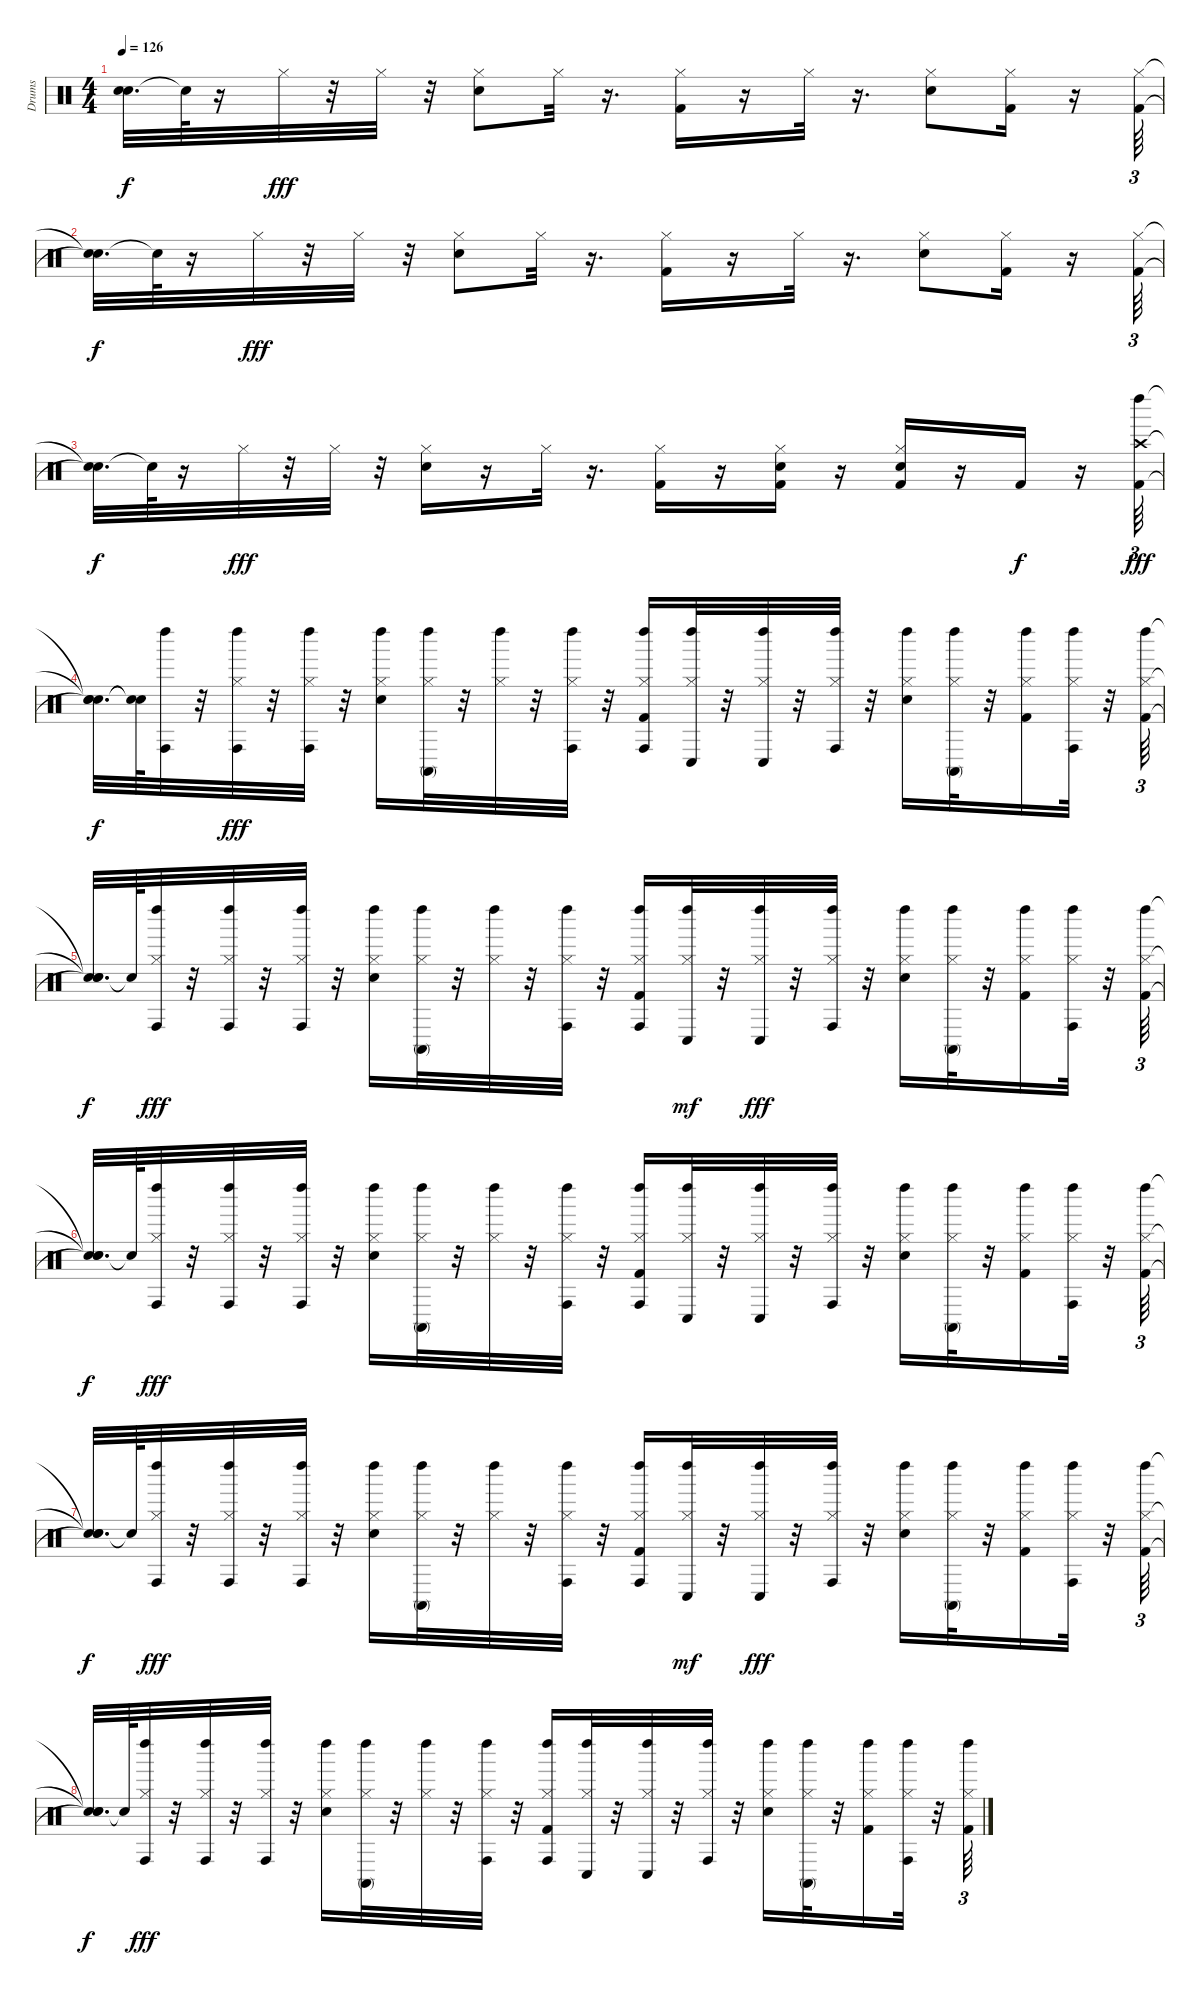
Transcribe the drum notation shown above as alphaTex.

\track ("Drums" "Drums") {instrument percussion}
\staff {score}
\articulation defaults
\ts (4 4)
\tempo 126
\clef neutral
\ks c
("Snare (hit)"{t} "Snare (hit)"{t}).32{d dy f} "Snare (hit)"{t}.64 r.16 "Hi-Hat (closed)".32{dy fff} r.32 "Hi-Hat (closed)".32 r.32 ("Snare (hit) 2" "Hi-Hat (closed)").8 "Hi-Hat (closed)".32 r.16{d} ("Hi-Hat (closed)" "Kick (hit) 2").16 r.16 "Hi-Hat (closed)".32 r.16{d} ("Snare (hit) 2" "Hi-Hat (closed)").8 ("Hi-Hat (closed)" "Kick (hit) 2").16 r.16 ("Hi-Hat (closed)" "Kick (hit) 2").64{tu (3 2)} |
("Snare (hit)"{t} "Snare (hit)"{t}).32{d dy f} "Snare (hit)"{t}.64 r.16 "Hi-Hat (closed)".32{dy fff} r.32 "Hi-Hat (closed)".32 r.32 ("Snare (hit) 2" "Hi-Hat (closed)").8 "Hi-Hat (closed)".32 r.16{d} ("Hi-Hat (closed)" "Kick (hit) 2").16 r.16 "Hi-Hat (closed)".32 r.16{d} ("Hi-Hat (closed)" "Snare (hit) 2").8 ("Kick (hit) 2" "Hi-Hat (closed)").16 r.16 ("Hi-Hat (closed)" "Kick (hit) 2").64{tu (3 2)} |
("Snare (hit)"{t} "Snare (hit)"{t}).32{d dy f} "Snare (hit)"{t}.64 r.16 "Hi-Hat (closed)".32{dy fff} r.32 "Hi-Hat (closed)".32 r.32 ("Hi-Hat (closed)" "Snare (hit) 2").16 r.16 "Hi-Hat (closed)".32 r.16{d} ("Kick (hit) 2" "Hi-Hat (closed)").16 r.16 ("Kick (hit) 2" "Hi-Hat (closed)" "Snare (hit) 2").16 r.16 ("Snare (hit) 2" "Hi-Hat (closed)" "Kick (hit) 2").16 r.16 "Kick (hit) 2".16{dy f} r.16 ("Left Maraca (hit)" "Crash high (hit)" "Kick (hit) 2").64{tu (3 2) dy fff} |
("Snare (hit)"{t} "Snare (hit)"{t} "Snare (hit)"{t}).32{d dy f} ("Snare (hit)"{t} "Snare (hit)"{t}).64 ("Conga high (hit)" "Left Maraca (hit)").32 r.32 ("Left Maraca (hit)" "Hi-Hat (closed)" "Conga high (hit)").32{dy fff} r.32 ("Hi-Hat (closed)" "Left Maraca (hit)" "Conga high (hit)").32 r.32 ("Snare (hit) 2" "Hi-Hat (closed)" "Left Maraca (hit)").16 ("Conga high (mute)" "Left Maraca (hit)" "Hi-Hat (closed)").32 r.32 ("Left Maraca (hit)" "Hi-Hat (closed)").32 r.32 ("Hi-Hat (closed)" "Conga high (hit)" "Left Maraca (hit)").32 r.32 ("Hi-Hat (closed)" "Left Maraca (hit)" "Conga high (hit)" "Kick (hit) 2").16 ("Conga low (hit)" "Hi-Hat (closed)" "Left Maraca (hit)").32 r.32 ("Left Maraca (hit)" "Conga low (hit)" "Hi-Hat (closed)").32 r.32 ("Conga high (hit)" "Hi-Hat (closed)" "Left Maraca (hit)").32 r.32 ("Snare (hit) 2" "Hi-Hat (closed)" "Left Maraca (hit)").16 ("Left Maraca (hit)" "Conga high (mute)" "Hi-Hat (closed)").32 r.32 ("Kick (hit) 2" "Hi-Hat (closed)" "Left Maraca (hit)").16 ("Left Maraca (hit)" "Conga high (hit)" "Hi-Hat (closed)").32 r.32 ("Kick (hit) 2" "Left Maraca (hit)" "Hi-Hat (closed)").64{tu (3 2)} |
("Snare (hit)"{t} "Snare (hit)"{t} "Snare (hit)"{t}).32{d dy f} "Snare (hit)"{t}.64 ("Conga high (hit)" "Hi-Hat (closed)" "Left Maraca (hit)").32{dy fff} r.32 ("Left Maraca (hit)" "Conga high (hit)" "Hi-Hat (closed)").32 r.32 ("Conga high (hit)" "Hi-Hat (closed)" "Left Maraca (hit)").32 r.32 ("Hi-Hat (closed)" "Snare (hit) 2" "Left Maraca (hit)").16 ("Hi-Hat (closed)" "Left Maraca (hit)" "Conga high (mute)").32 r.32 ("Left Maraca (hit)" "Hi-Hat (closed)").32 r.32 ("Left Maraca (hit)" "Conga high (hit)" "Hi-Hat (closed)").32 r.32 ("Kick (hit) 2" "Left Maraca (hit)" "Conga high (hit)" "Hi-Hat (closed)").16 ("Hi-Hat (closed)" "Left Maraca (hit)" "Conga low (hit)").32{dy mf} r.32 ("Left Maraca (hit)" "Hi-Hat (closed)" "Conga low (hit)").32{dy fff} r.32 ("Left Maraca (hit)" "Conga high (hit)" "Hi-Hat (closed)").32 r.32 ("Hi-Hat (closed)" "Snare (hit) 2" "Left Maraca (hit)").16 ("Conga high (mute)" "Hi-Hat (closed)" "Left Maraca (hit)").32 r.32 ("Kick (hit) 2" "Left Maraca (hit)" "Hi-Hat (closed)").16 ("Hi-Hat (closed)" "Conga high (hit)" "Left Maraca (hit)").32 r.32 ("Kick (hit) 2" "Left Maraca (hit)" "Hi-Hat (closed)").64{tu (3 2)} |
("Snare (hit)"{t} "Snare (hit)"{t} "Snare (hit)"{t}).32{d dy f} "Snare (hit)"{t}.64 ("Hi-Hat (closed)" "Left Maraca (hit)" "Conga high (hit)").32{dy fff} r.32 ("Left Maraca (hit)" "Conga high (hit)" "Hi-Hat (closed)").32 r.32 ("Conga high (hit)" "Left Maraca (hit)" "Hi-Hat (closed)").32 r.32 ("Left Maraca (hit)" "Hi-Hat (closed)" "Snare (hit) 2").16 ("Conga high (mute)" "Hi-Hat (closed)" "Left Maraca (hit)").32 r.32 ("Left Maraca (hit)" "Hi-Hat (closed)").32 r.32 ("Hi-Hat (closed)" "Left Maraca (hit)" "Conga high (hit)").32 r.32 ("Conga high (hit)" "Hi-Hat (closed)" "Kick (hit) 2" "Left Maraca (hit)").16 ("Conga low (hit)" "Left Maraca (hit)" "Hi-Hat (closed)").32 r.32 ("Hi-Hat (closed)" "Left Maraca (hit)" "Conga low (hit)").32 r.32 ("Hi-Hat (closed)" "Conga high (hit)" "Left Maraca (hit)").32 r.32 ("Snare (hit) 2" "Hi-Hat (closed)" "Left Maraca (hit)").16 ("Conga high (mute)" "Hi-Hat (closed)" "Left Maraca (hit)").32 r.32 ("Left Maraca (hit)" "Kick (hit) 2" "Hi-Hat (closed)").16 ("Hi-Hat (closed)" "Conga high (hit)" "Left Maraca (hit)").32 r.32 ("Hi-Hat (closed)" "Left Maraca (hit)" "Kick (hit) 2").64{tu (3 2)} |
("Snare (hit)"{t} "Snare (hit)"{t} "Snare (hit)"{t}).32{d dy f} "Snare (hit)"{t}.64 ("Conga high (hit)" "Left Maraca (hit)" "Hi-Hat (closed)").32{dy fff} r.32 ("Hi-Hat (closed)" "Left Maraca (hit)" "Conga high (hit)").32 r.32 ("Conga high (hit)" "Left Maraca (hit)" "Hi-Hat (closed)").32 r.32 ("Snare (hit) 2" "Left Maraca (hit)" "Hi-Hat (closed)").16 ("Hi-Hat (closed)" "Left Maraca (hit)" "Conga high (mute)").32 r.32 ("Hi-Hat (closed)" "Left Maraca (hit)").32 r.32 ("Conga high (hit)" "Hi-Hat (closed)" "Left Maraca (hit)").32 r.32 ("Kick (hit) 2" "Left Maraca (hit)" "Conga high (hit)" "Hi-Hat (closed)").16 ("Left Maraca (hit)" "Hi-Hat (closed)" "Conga low (hit)").32{dy mf} r.32 ("Left Maraca (hit)" "Hi-Hat (closed)" "Conga low (hit)").32{dy fff} r.32 ("Left Maraca (hit)" "Hi-Hat (closed)" "Conga high (hit)").32 r.32 ("Left Maraca (hit)" "Snare (hit) 2" "Hi-Hat (closed)").16 ("Left Maraca (hit)" "Hi-Hat (closed)" "Conga high (mute)").32 r.32 ("Left Maraca (hit)" "Kick (hit) 2" "Hi-Hat (closed)").16 ("Conga high (hit)" "Left Maraca (hit)" "Hi-Hat (closed)").32 r.32 ("Hi-Hat (closed)" "Kick (hit) 2" "Left Maraca (hit)").64{tu (3 2)} |
("Snare (hit)"{t} "Snare (hit)"{t} "Snare (hit)"{t}).32{d dy f} "Snare (hit)"{t}.64 ("Left Maraca (hit)" "Hi-Hat (closed)" "Conga high (hit)").32{dy fff} r.32 ("Left Maraca (hit)" "Hi-Hat (closed)" "Conga high (hit)").32 r.32 ("Hi-Hat (closed)" "Conga high (hit)" "Left Maraca (hit)").32 r.32 ("Left Maraca (hit)" "Snare (hit) 2" "Hi-Hat (closed)").16 ("Left Maraca (hit)" "Conga high (mute)" "Hi-Hat (closed)").32 r.32 ("Left Maraca (hit)" "Hi-Hat (closed)").32 r.32 ("Hi-Hat (closed)" "Left Maraca (hit)" "Conga high (hit)").32 r.32 ("Hi-Hat (closed)" "Kick (hit) 2" "Left Maraca (hit)" "Conga high (hit)").16 ("Conga low (hit)" "Hi-Hat (closed)" "Left Maraca (hit)").32 r.32 ("Hi-Hat (closed)" "Conga low (hit)" "Left Maraca (hit)").32 r.32 ("Hi-Hat (closed)" "Conga high (hit)" "Left Maraca (hit)").32 r.32 ("Left Maraca (hit)" "Hi-Hat (closed)" "Snare (hit) 2").16 ("Hi-Hat (closed)" "Conga high (mute)" "Left Maraca (hit)").32 r.32 ("Kick (hit) 2" "Hi-Hat (closed)" "Left Maraca (hit)").16 ("Hi-Hat (closed)" "Conga high (hit)" "Left Maraca (hit)").32 r.32 ("Left Maraca (hit)" "Hi-Hat (closed)" "Kick (hit) 2").64{tu (3 2)}
